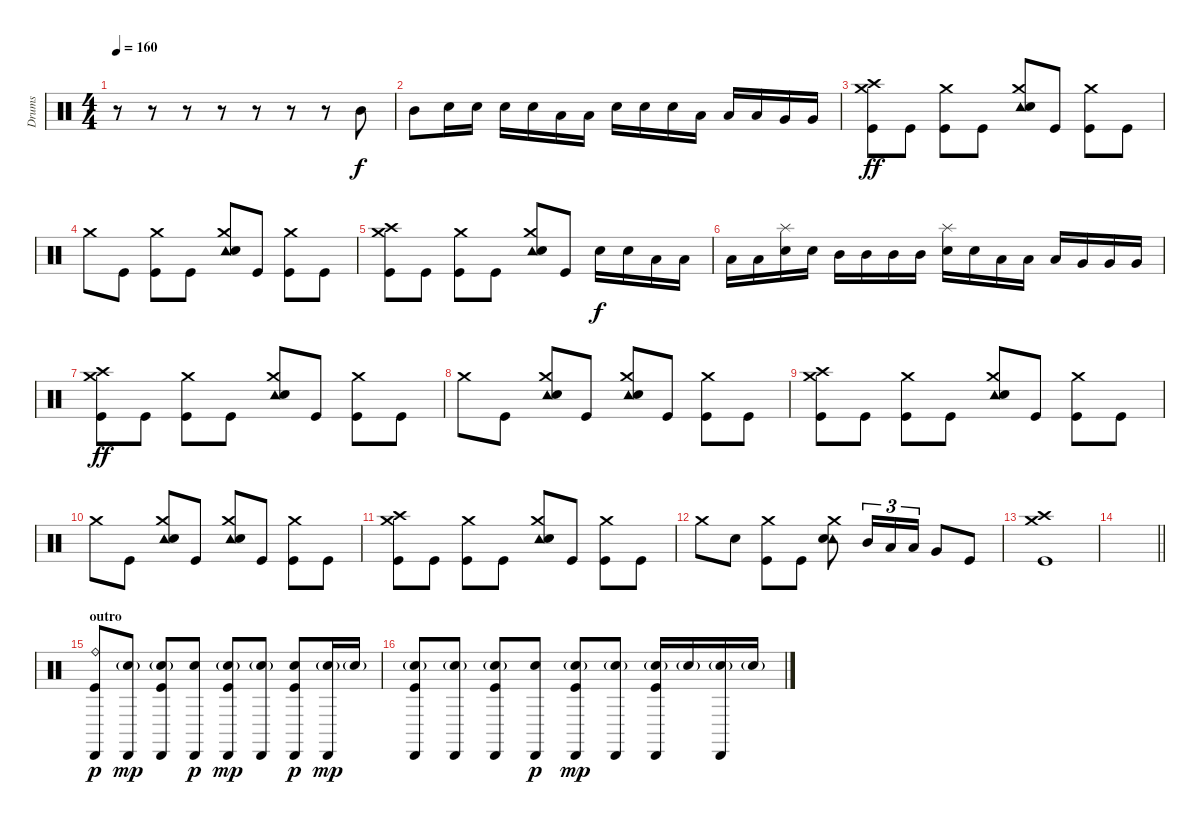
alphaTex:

\track ("Drums" "Drums") {instrument percussion}
\staff {score}
\articulation defaults
\ts (4 4)
\tempo 160
\clef neutral
\ks c
r.8{dy f} r.8 r.8 r.8 r.8 r.8 r.8 "Mid Tom (hit)".8 |
"Mid Tom (hit)".8 "Electric Snare (hit)".16 "Electric Snare (hit)".16 "Electric Snare (hit)".16 "Electric Snare (hit)".16 "Low Tom (hit)".16 "Low Tom (hit)".16 "Electric Snare (hit)".16 "Electric Snare (hit)".16 "Electric Snare (hit)".16 "Low Tom (hit)".16 "Low Tom (hit)".16 "Low Tom (hit)".16 "Very Low Tom (hit)".16 "Very Low Tom (hit)".16 |
("Crash medium (hit)" "Crash high (hit)" "Kick (hit)").8{dy ff} "Kick (hit)".8 ("Crash medium (hit)" "Kick (hit)").8 "Kick (hit)".8 ("Tambourine (hit)" "Crash medium (hit)" "Electric Snare (hit)").8 "Kick (hit)".8 ("Crash medium (hit)" "Kick (hit)").8 "Kick (hit)".8 |
"Crash medium (hit)".8 "Kick (hit)".8 ("Crash medium (hit)" "Kick (hit)").8 "Kick (hit)".8 ("Tambourine (hit)" "Crash medium (hit)" "Electric Snare (hit)").8 "Kick (hit)".8 ("Crash medium (hit)" "Kick (hit)").8 "Kick (hit)".8 |
("Crash medium (hit)" "Crash high (hit)" "Kick (hit)").8 "Kick (hit)".8 ("Crash medium (hit)" "Kick (hit)").8 "Kick (hit)".8 ("Tambourine (hit)" "Crash medium (hit)" "Electric Snare (hit)").8 "Kick (hit)".8 "Electric Snare (hit)".16{dy f} "Electric Snare (hit)".16 "Low Tom (hit)".16 "Low Tom (hit)".16 |
"Low Tom (hit)".16 "Low Tom (hit)".16 ("Splash (hit)" "Electric Snare (hit)").16 "Electric Snare (hit)".16 "Mid Tom (hit)".16 "Mid Tom (hit)".16 "Mid Tom (hit)".16 "Mid Tom (hit)".16 ("Splash (hit)" "Electric Snare (hit)").16 "Electric Snare (hit)".16 "Low Tom (hit)".16 "Low Tom (hit)".16 "Low Tom (hit)".16 "Very Low Tom (hit)".16 "Very Low Tom (hit)".16 "Very Low Tom (hit)".16 |
("Crash medium (hit)" "Crash high (hit)" "Kick (hit)").8{dy ff} "Kick (hit)".8 ("Crash medium (hit)" "Kick (hit)").8 "Kick (hit)".8 ("Tambourine (hit)" "Crash medium (hit)" "Electric Snare (hit)").8 "Kick (hit)".8 ("Crash medium (hit)" "Kick (hit)").8 "Kick (hit)".8 |
"Crash medium (hit)".8 "Kick (hit)".8 ("Tambourine (hit)" "Crash medium (hit)" "Electric Snare (hit)").8 "Kick (hit)".8 ("Tambourine (hit)" "Crash medium (hit)" "Electric Snare (hit)").8 "Kick (hit)".8 ("Crash medium (hit)" "Kick (hit)").8 "Kick (hit)".8 |
("Crash medium (hit)" "Crash high (hit)" "Kick (hit)").8 "Kick (hit)".8 ("Crash medium (hit)" "Kick (hit)").8 "Kick (hit)".8 ("Tambourine (hit)" "Crash medium (hit)" "Electric Snare (hit)").8 "Kick (hit)".8 ("Crash medium (hit)" "Kick (hit)").8 "Kick (hit)".8 |
"Crash medium (hit)".8 "Kick (hit)".8 ("Tambourine (hit)" "Crash medium (hit)" "Electric Snare (hit)").8 "Kick (hit)".8 ("Tambourine (hit)" "Crash medium (hit)" "Electric Snare (hit)").8 "Kick (hit)".8 ("Crash medium (hit)" "Kick (hit)").8 "Kick (hit)".8 |
("Crash medium (hit)" "Crash high (hit)" "Kick (hit)").8 "Kick (hit)".8 ("Crash medium (hit)" "Kick (hit)").8 "Kick (hit)".8 ("Tambourine (hit)" "Crash medium (hit)" "Electric Snare (hit)").8 "Kick (hit)".8 ("Crash medium (hit)" "Kick (hit)").8 "Kick (hit)".8 |
"Crash medium (hit)".8 "Electric Snare (hit)".8 ("Crash medium (hit)" "Kick (hit)").8 "Kick (hit)".8 ("Tambourine (hit)" "Crash medium (hit)" "Electric Snare (hit)").8 "Mid Tom (hit)".16{tu (3 2)} "Low Tom (hit)".16{tu (3 2)} "Low Tom (hit)".16{tu (3 2)} "Very Low Tom (hit)".8 "Kick (hit)".8 |
("Crash medium (hit)" "Crash high (hit)" "Kick (hit)").1 |
\barLineRight lightlight
|
\section ("" "outro")
("Cabasa (hit)" "Ride (bell)" "Kick (hit)").8{dy p} ("Cabasa (hit)" "Electric Snare (hit)"{g}).8{dy mp} ("Cabasa (hit)" "Electric Snare (hit)"{g} "Kick (hit)").8 ("Cabasa (hit)" "Electric Snare (hit)").8{dy p} ("Cabasa (hit)" "Electric Snare (hit)"{g} "Kick (hit)").8{dy mp} ("Cabasa (hit)" "Electric Snare (hit)"{g}).8 ("Cabasa (hit)" "Electric Snare (hit)" "Kick (hit)").8{dy p} ("Cabasa (hit)" "Electric Snare (hit)"{g}).16{dy mp} "Electric Snare (hit)"{g}.16 |
("Cabasa (hit)" "Electric Snare (hit)"{g} "Kick (hit)").8 ("Cabasa (hit)" "Electric Snare (hit)"{g}).8 ("Cabasa (hit)" "Electric Snare (hit)"{g} "Kick (hit)").8 ("Cabasa (hit)" "Electric Snare (hit)").8{dy p} ("Cabasa (hit)" "Electric Snare (hit)"{g} "Kick (hit)").8{dy mp} ("Cabasa (hit)" "Electric Snare (hit)"{g}).8 ("Cabasa (hit)" "Electric Snare (hit)"{g} "Kick (hit)").16 "Electric Snare (hit)"{g}.16 ("Cabasa (hit)" "Electric Snare (hit)"{g}).16 "Electric Snare (hit)"{g}.16
